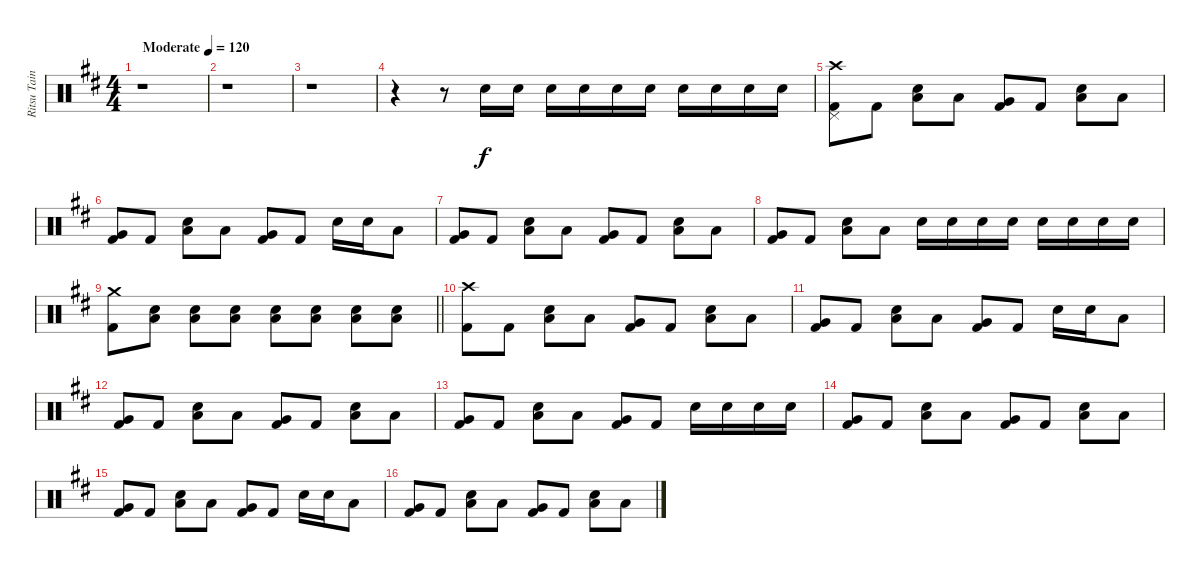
\track ("Ritsu Tainaka" "Ritsu Tain") {instrument percussion}
\staff {score}
\articulation defaults
\ts (4 4)
\tempo (120 "Moderate")
\tempo 148
\tempo (120 "Moderate")
\clef neutral
\ks d
r.1{dy f} |
r.1 |
r.1 |
r.4 r.8 "Snare (hit) 2".16 "Snare (hit) 2".16 "Snare (hit) 2".16 "Snare (hit) 2".16 "Snare (hit) 2".16 "Snare (hit) 2".16 "Snare (hit) 2".16 "Snare (hit) 2".16 "Snare (hit) 2".16 "Snare (hit) 2".16 |
("Crash high (hit)" "Pedal Hi-Hat (hit)" "Kick (hit) 2").8 "Kick (hit) 2".8 ("Snare (hit) 2" "Low Floor Tom (hit)").8 "Low Tom (hit)".8 ("Very Low Tom (hit)" "Kick (hit) 2").8 "Kick (hit) 2".8 ("Snare (hit) 2" "Low Floor Tom (hit)").8 "Low Tom (hit)".8 |
("Very Low Tom (hit)" "Kick (hit) 2").8 "Kick (hit) 2".8 ("Snare (hit) 2" "Low Floor Tom (hit)").8 "Low Tom (hit)".8 ("Very Low Tom (hit)" "Kick (hit) 2").8 "Kick (hit) 2".8 "Snare (hit) 2".16 "Snare (hit) 2".16 "Low Tom (hit)".8 |
("Very Low Tom (hit)" "Kick (hit) 2").8 "Kick (hit) 2".8 ("Snare (hit) 2" "Low Floor Tom (hit)").8 "Low Tom (hit)".8 ("Very Low Tom (hit)" "Kick (hit) 2").8 "Kick (hit) 2".8 ("Snare (hit) 2" "Low Floor Tom (hit)").8 "Low Tom (hit)".8 |
("Very Low Tom (hit)" "Kick (hit) 2").8 "Kick (hit) 2".8 ("Snare (hit) 2" "Low Floor Tom (hit)").8 "Low Tom (hit)".8 "Snare (hit) 2".16 "Snare (hit) 2".16 "Snare (hit) 2".16 "Snare (hit) 2".16 "Snare (hit) 2".16 "Snare (hit) 2".16 "Snare (hit) 2".16 "Snare (hit) 2".16 |
\barLineRight lightlight
("Crash medium (hit)" "Kick (hit) 2").8 ("Snare (hit) 2" "Low Floor Tom (hit)").8 ("Snare (hit) 2" "Low Floor Tom (hit)").8 ("Snare (hit) 2" "Low Floor Tom (hit)").8 ("Snare (hit) 2" "Low Floor Tom (hit)").8 ("Snare (hit) 2" "Low Floor Tom (hit)").8 ("Snare (hit) 2" "Low Floor Tom (hit)").8 ("Snare (hit) 2" "Low Floor Tom (hit)").8 |
("Crash high (hit)" "Kick (hit) 2").8 "Kick (hit) 2".8 ("Snare (hit) 2" "Low Floor Tom (hit)").8 "Low Tom (hit)".8 ("Very Low Tom (hit)" "Kick (hit) 2").8 "Kick (hit) 2".8 ("Snare (hit) 2" "Low Floor Tom (hit)").8 "Low Tom (hit)".8 |
("Very Low Tom (hit)" "Kick (hit) 2").8 "Kick (hit) 2".8 ("Snare (hit) 2" "Low Floor Tom (hit)").8 "Low Tom (hit)".8 ("Very Low Tom (hit)" "Kick (hit) 2").8 "Kick (hit) 2".8 "Snare (hit) 2".16 "Snare (hit) 2".16 "Low Tom (hit)".8 |
("Very Low Tom (hit)" "Kick (hit) 2").8 "Kick (hit) 2".8 ("Snare (hit) 2" "Low Floor Tom (hit)").8 "Low Tom (hit)".8 ("Very Low Tom (hit)" "Kick (hit) 2").8 "Kick (hit) 2".8 ("Snare (hit) 2" "Low Floor Tom (hit)").8 "Low Tom (hit)".8 |
("Very Low Tom (hit)" "Kick (hit) 2").8 "Kick (hit) 2".8 ("Snare (hit) 2" "Low Floor Tom (hit)").8 "Low Tom (hit)".8 ("Very Low Tom (hit)" "Kick (hit) 2").8 "Kick (hit) 2".8 "Snare (hit) 2".16 "Snare (hit) 2".16 "Snare (hit) 2".16 "Snare (hit) 2".16 |
("Very Low Tom (hit)" "Kick (hit) 2").8 "Kick (hit) 2".8 ("Snare (hit) 2" "Low Floor Tom (hit)").8 "Low Tom (hit)".8 ("Very Low Tom (hit)" "Kick (hit) 2").8 "Kick (hit) 2".8 ("Snare (hit) 2" "Low Floor Tom (hit)").8 "Low Tom (hit)".8 |
("Very Low Tom (hit)" "Kick (hit) 2").8 "Kick (hit) 2".8 ("Snare (hit) 2" "Low Floor Tom (hit)").8 "Low Tom (hit)".8 ("Very Low Tom (hit)" "Kick (hit) 2").8 "Kick (hit) 2".8 "Snare (hit) 2".16 "Snare (hit) 2".16 "Low Tom (hit)".8 |
("Very Low Tom (hit)" "Kick (hit) 2").8 "Kick (hit) 2".8 ("Snare (hit) 2" "Low Floor Tom (hit)").8 "Low Tom (hit)".8 ("Very Low Tom (hit)" "Kick (hit) 2").8 "Kick (hit) 2".8 ("Snare (hit) 2" "Low Floor Tom (hit)").8 "Low Tom (hit)".8
